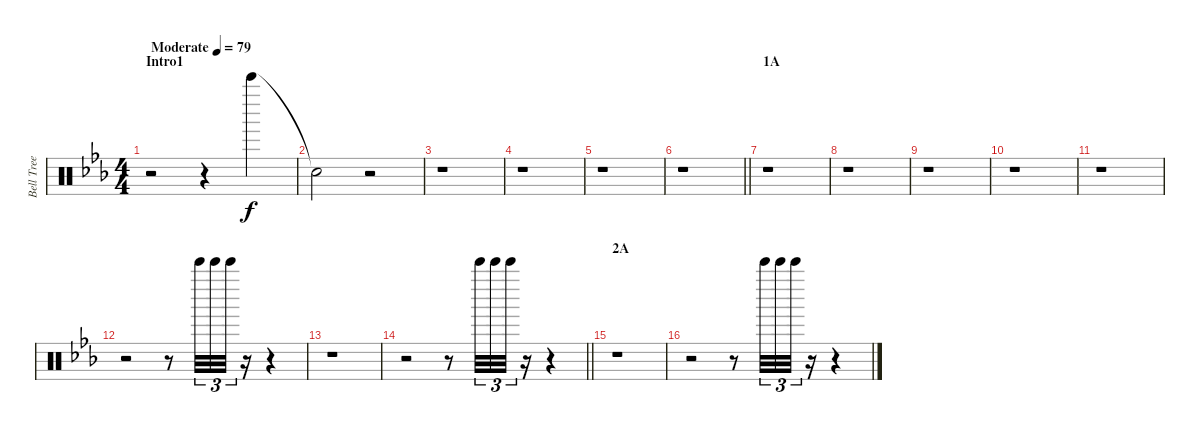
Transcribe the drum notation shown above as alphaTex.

\track ("Bell Tree" "Bell Tree") {instrument percussion}
\staff {score}
\articulation defaults
\ts (4 4)
\section ("" "Intro1")
\tempo (79 "Moderate")
\clef neutral
\ks eb
r.2{dy f} r.4 "Bell Tree (hit)".4 |
"Snare (hit)"{t}.2 r.2 |
r.1 |
r.1 |
r.1 |
\barLineRight lightlight
r.1 |
\section ("" "1A")
r.1 |
r.1 |
r.1 |
r.1 |
r.1 |
r.2 r.8 "Bell Tree (hit)".32{tu (3 2)} "Bell Tree (hit)".32{tu (3 2)} "Bell Tree (hit)".32{tu (3 2)} r.16 r.4 |
r.1 |
\barLineRight lightlight
r.2 r.8 "Bell Tree (hit)".32{tu (3 2)} "Bell Tree (hit)".32{tu (3 2)} "Bell Tree (hit)".32{tu (3 2)} r.16 r.4 |
\section ("" "2A")
r.1 |
r.2 r.8 "Bell Tree (hit)".32{tu (3 2)} "Bell Tree (hit)".32{tu (3 2)} "Bell Tree (hit)".32{tu (3 2)} r.16 r.4
